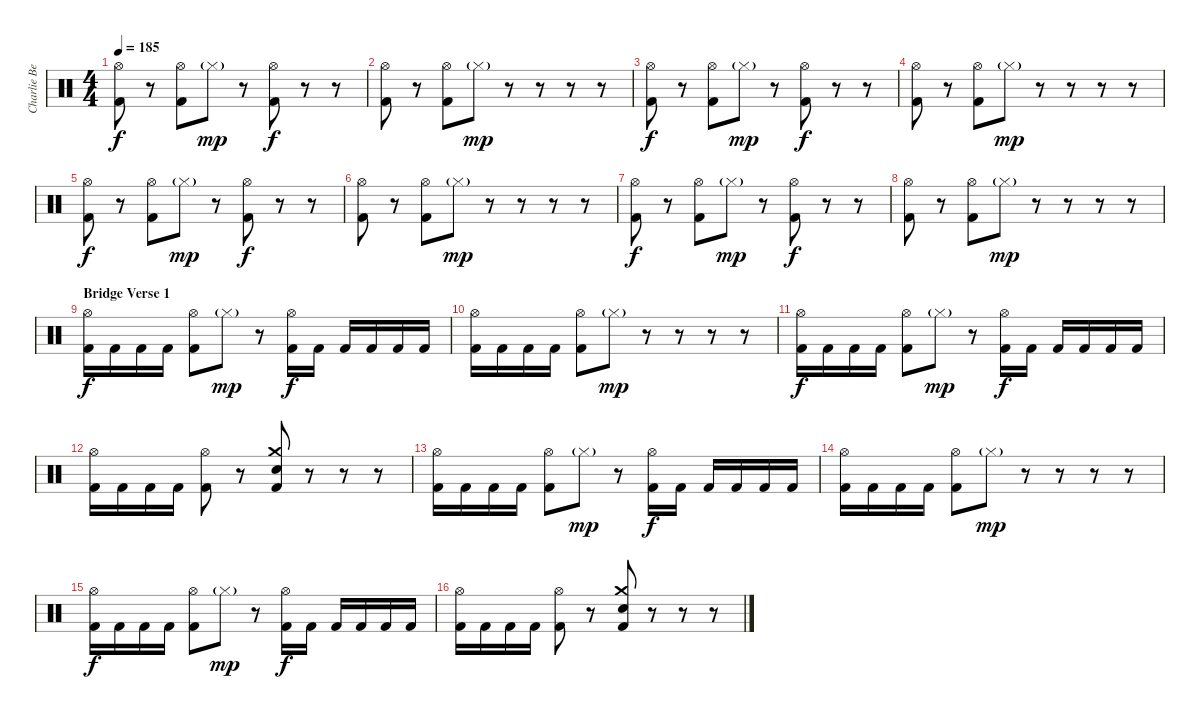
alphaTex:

\track ("Charlie Benante" "Charlie Be") {instrument percussion}
\staff {score}
\articulation defaults
\ts (4 4)
\tempo 185
\clef neutral
\ks c
("Hi-Hat (open)" "Kick (hit) 2").8{dy f} r.8 ("Hi-Hat (open)" "Kick (hit) 2").8 "Hi-Hat (closed)"{g}.8{dy mp} r.8 ("Hi-Hat (open)" "Kick (hit) 2").8{dy f} r.8 r.8 |
("Hi-Hat (open)" "Kick (hit) 2").8 r.8 ("Hi-Hat (open)" "Kick (hit) 2").8 "Hi-Hat (closed)"{g}.8{dy mp} r.8 r.8 r.8 r.8 |
("Hi-Hat (open)" "Kick (hit) 2").8{dy f} r.8 ("Hi-Hat (open)" "Kick (hit) 2").8 "Hi-Hat (closed)"{g}.8{dy mp} r.8 ("Hi-Hat (open)" "Kick (hit) 2").8{dy f} r.8 r.8 |
("Hi-Hat (open)" "Kick (hit) 2").8 r.8 ("Hi-Hat (open)" "Kick (hit) 2").8 "Hi-Hat (closed)"{g}.8{dy mp} r.8 r.8 r.8 r.8 |
("Hi-Hat (open)" "Kick (hit) 2").8{dy f} r.8 ("Hi-Hat (open)" "Kick (hit) 2").8 "Hi-Hat (closed)"{g}.8{dy mp} r.8 ("Hi-Hat (open)" "Kick (hit) 2").8{dy f} r.8 r.8 |
("Hi-Hat (open)" "Kick (hit) 2").8 r.8 ("Hi-Hat (open)" "Kick (hit) 2").8 "Hi-Hat (closed)"{g}.8{dy mp} r.8 r.8 r.8 r.8 |
("Hi-Hat (open)" "Kick (hit) 2").8{dy f} r.8 ("Hi-Hat (open)" "Kick (hit) 2").8 "Hi-Hat (closed)"{g}.8{dy mp} r.8 ("Hi-Hat (open)" "Kick (hit) 2").8{dy f} r.8 r.8 |
("Hi-Hat (open)" "Kick (hit) 2").8 r.8 ("Hi-Hat (open)" "Kick (hit) 2").8 "Hi-Hat (closed)"{g}.8{dy mp} r.8 r.8 r.8 r.8 |
\section ("" "Bridge Verse 1")
("Hi-Hat (open)" "Kick (hit) 2").16{dy f} "Kick (hit) 2".16 "Kick (hit) 2".16 "Kick (hit) 2".16 ("Hi-Hat (open)" "Kick (hit) 2").8 "Hi-Hat (closed)"{g}.8{dy mp} r.8 ("Hi-Hat (open)" "Kick (hit) 2").16{dy f} "Kick (hit) 2".16 "Kick (hit) 2".16 "Kick (hit) 2".16 "Kick (hit) 2".16 "Kick (hit) 2".16 |
("Hi-Hat (open)" "Kick (hit) 2").16 "Kick (hit) 2".16 "Kick (hit) 2".16 "Kick (hit) 2".16 ("Hi-Hat (open)" "Kick (hit) 2").8 "Hi-Hat (closed)"{g}.8{dy mp} r.8 r.8 r.8 r.8 |
("Hi-Hat (open)" "Kick (hit) 2").16{dy f} "Kick (hit) 2".16 "Kick (hit) 2".16 "Kick (hit) 2".16 ("Hi-Hat (open)" "Kick (hit) 2").8 "Hi-Hat (closed)"{g}.8{dy mp} r.8 ("Hi-Hat (open)" "Kick (hit) 2").16{dy f} "Kick (hit) 2".16 "Kick (hit) 2".16 "Kick (hit) 2".16 "Kick (hit) 2".16 "Kick (hit) 2".16 |
("Hi-Hat (open)" "Kick (hit) 2").16 "Kick (hit) 2".16 "Kick (hit) 2".16 "Kick (hit) 2".16 ("Hi-Hat (open)" "Kick (hit) 2").8 r.8 ("Crash medium (hit)" "Snare (hit) 2" "Kick (hit) 2").8 r.8 r.8 r.8 |
("Hi-Hat (open)" "Kick (hit) 2").16 "Kick (hit) 2".16 "Kick (hit) 2".16 "Kick (hit) 2".16 ("Hi-Hat (open)" "Kick (hit) 2").8 "Hi-Hat (closed)"{g}.8{dy mp} r.8 ("Hi-Hat (open)" "Kick (hit) 2").16{dy f} "Kick (hit) 2".16 "Kick (hit) 2".16 "Kick (hit) 2".16 "Kick (hit) 2".16 "Kick (hit) 2".16 |
("Hi-Hat (open)" "Kick (hit) 2").16 "Kick (hit) 2".16 "Kick (hit) 2".16 "Kick (hit) 2".16 ("Hi-Hat (open)" "Kick (hit) 2").8 "Hi-Hat (closed)"{g}.8{dy mp} r.8 r.8 r.8 r.8 |
("Hi-Hat (open)" "Kick (hit) 2").16{dy f} "Kick (hit) 2".16 "Kick (hit) 2".16 "Kick (hit) 2".16 ("Hi-Hat (open)" "Kick (hit) 2").8 "Hi-Hat (closed)"{g}.8{dy mp} r.8 ("Hi-Hat (open)" "Kick (hit) 2").16{dy f} "Kick (hit) 2".16 "Kick (hit) 2".16 "Kick (hit) 2".16 "Kick (hit) 2".16 "Kick (hit) 2".16 |
("Hi-Hat (open)" "Kick (hit) 2").16 "Kick (hit) 2".16 "Kick (hit) 2".16 "Kick (hit) 2".16 ("Hi-Hat (open)" "Kick (hit) 2").8 r.8 ("Crash medium (hit)" "Snare (hit) 2" "Kick (hit) 2").8 r.8 r.8 r.8
